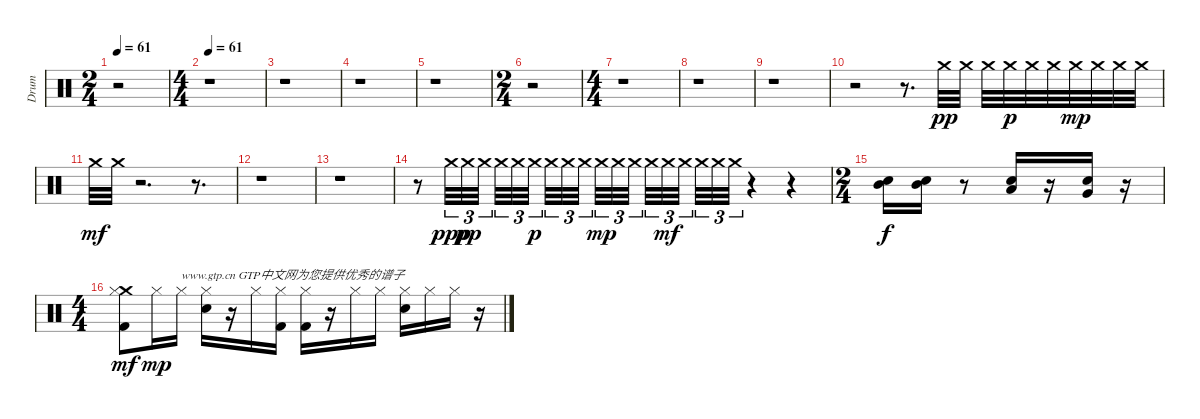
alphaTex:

\track ("Drum" "Drum") {instrument percussion}
\staff {score}
\articulation defaults
\ts (2 4)
\tempo 61
\clef neutral
\ks c
r.2{dy pp} |
\ts (4 4)
\tempo 61
r.1 |
r.1 |
r.1 |
r.1 |
\ts (2 4)
r.2 |
\ts (4 4)
r.1 |
r.1 |
r.1 |
r.2 r.8{d} "Crash medium (hit)".32 "Crash medium (hit)".32 "Crash medium (hit)".32 "Crash medium (hit)".32{dy p} "Crash medium (hit)".32 "Crash medium (hit)".32 "Crash medium (hit)".32{dy mp} "Crash medium (hit)".32 "Crash medium (hit)".32 "Crash medium (hit)".32 |
"Crash medium (hit)".32{dy mf} "Crash medium (hit)".32 r.2{d} r.8{d} |
r.1 |
r.1 |
r.8 "Crash medium (hit)".32{tu (3 2) dy ppp} "Crash medium (hit)".32{tu (3 2) dy pp} "Crash medium (hit)".32{tu (3 2) beam splitsecondary} "Crash medium (hit)".32{tu (3 2)} "Crash medium (hit)".32{tu (3 2)} "Crash medium (hit)".32{tu (3 2) dy p} "Crash medium (hit)".32{tu (3 2)} "Crash medium (hit)".32{tu (3 2)} "Crash medium (hit)".32{tu (3 2) beam splitsecondary} "Crash medium (hit)".32{tu (3 2) dy mp} "Crash medium (hit)".32{tu (3 2)} "Crash medium (hit)".32{tu (3 2) beam splitsecondary} "Crash medium (hit)".32{tu (3 2)} "Crash medium (hit)".32{tu (3 2) dy mf} "Crash medium (hit)".32{tu (3 2) beam splitsecondary} "Crash medium (hit)".32{tu (3 2)} "Crash medium (hit)".32{tu (3 2)} "Crash medium (hit)".32{tu (3 2)} r.4 r.4 |
\ts (2 4)
("Mid Tom (hit)" "Snare (hit) 2").16{dy f} ("Mid Tom (hit)" "Snare (hit) 2").16 r.8 ("Low Tom (hit)" "Snare (hit) 2").16 r.16 ("Very Low Tom (hit)" "Snare (hit) 2").16 r.16 |
\ts (4 4)
("Crash medium (hit)" "Hi-Hat (closed)" "Kick (hit) 2").8{dy mf} "Hi-Hat (closed)".16{dy mp} "Hi-Hat (closed)".16{txt "www.gtp.cn GTP中文网为您提供优秀的谱子"} ("Hi-Hat (closed)" "Snare (hit) 2").16 r.16 "Hi-Hat (closed)".16 ("Hi-Hat (closed)" "Kick (hit) 2").16 ("Hi-Hat (closed)" "Kick (hit) 2").16 r.16 "Hi-Hat (closed)".16 "Hi-Hat (closed)".16 ("Hi-Hat (closed)" "Snare (hit) 2").16 "Hi-Hat (closed)".16 "Hi-Hat (closed)".16 r.16
